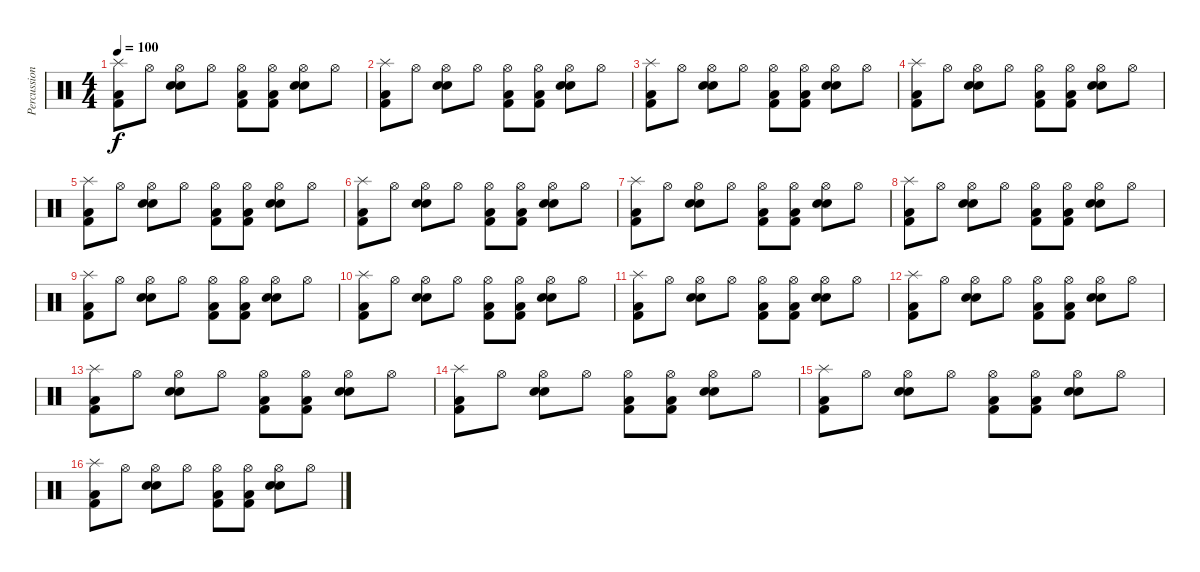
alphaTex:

\track ("Percussions" "Percussion") {instrument percussion}
\staff {score}
\articulation defaults
\ts (4 4)
\tempo 100
\clef neutral
\ks c
("Splash (hit)" "Kick (hit) 2" "Low Floor Tom (hit)").8{dy f} "Hi-Hat (open)".8 ("Hi-Hat (open)" "Snare (hit) 2" "Electric Snare (hit)").8 "Hi-Hat (open)".8 ("Hi-Hat (open)" "Kick (hit) 2" "Low Floor Tom (hit)").8 ("Hi-Hat (open)" "Kick (hit) 2" "Low Floor Tom (hit)").8 ("Hi-Hat (open)" "Snare (hit) 2" "Electric Snare (hit)").8 "Hi-Hat (open)".8 |
("Splash (hit)" "Kick (hit) 2" "Low Floor Tom (hit)").8 "Hi-Hat (open)".8 ("Hi-Hat (open)" "Snare (hit) 2" "Electric Snare (hit)").8 "Hi-Hat (open)".8 ("Hi-Hat (open)" "Kick (hit) 2" "Low Floor Tom (hit)").8 ("Hi-Hat (open)" "Kick (hit) 2" "Low Floor Tom (hit)").8 ("Hi-Hat (open)" "Snare (hit) 2" "Electric Snare (hit)").8 "Hi-Hat (open)".8 |
("Splash (hit)" "Kick (hit) 2" "Low Floor Tom (hit)").8 "Hi-Hat (open)".8 ("Hi-Hat (open)" "Snare (hit) 2" "Electric Snare (hit)").8 "Hi-Hat (open)".8 ("Hi-Hat (open)" "Kick (hit) 2" "Low Floor Tom (hit)").8 ("Hi-Hat (open)" "Kick (hit) 2" "Low Floor Tom (hit)").8 ("Hi-Hat (open)" "Snare (hit) 2" "Electric Snare (hit)").8 "Hi-Hat (open)".8 |
("Splash (hit)" "Kick (hit) 2" "Low Floor Tom (hit)").8 "Hi-Hat (open)".8 ("Hi-Hat (open)" "Snare (hit) 2" "Electric Snare (hit)").8 "Hi-Hat (open)".8 ("Hi-Hat (open)" "Kick (hit) 2" "Low Floor Tom (hit)").8 ("Hi-Hat (open)" "Kick (hit) 2" "Low Floor Tom (hit)").8 ("Hi-Hat (open)" "Snare (hit) 2" "Electric Snare (hit)").8 "Hi-Hat (open)".8 |
("Splash (hit)" "Kick (hit) 2" "Low Floor Tom (hit)").8 "Hi-Hat (open)".8 ("Hi-Hat (open)" "Snare (hit) 2" "Electric Snare (hit)").8 "Hi-Hat (open)".8 ("Hi-Hat (open)" "Kick (hit) 2" "Low Floor Tom (hit)").8 ("Hi-Hat (open)" "Kick (hit) 2" "Low Floor Tom (hit)").8 ("Hi-Hat (open)" "Snare (hit) 2" "Electric Snare (hit)").8 "Hi-Hat (open)".8 |
("Splash (hit)" "Kick (hit) 2" "Low Floor Tom (hit)").8 "Hi-Hat (open)".8 ("Hi-Hat (open)" "Snare (hit) 2" "Electric Snare (hit)").8 "Hi-Hat (open)".8 ("Hi-Hat (open)" "Kick (hit) 2" "Low Floor Tom (hit)").8 ("Hi-Hat (open)" "Kick (hit) 2" "Low Floor Tom (hit)").8 ("Hi-Hat (open)" "Snare (hit) 2" "Electric Snare (hit)").8 "Hi-Hat (open)".8 |
("Splash (hit)" "Kick (hit) 2" "Low Floor Tom (hit)").8 "Hi-Hat (open)".8 ("Hi-Hat (open)" "Snare (hit) 2" "Electric Snare (hit)").8 "Hi-Hat (open)".8 ("Hi-Hat (open)" "Kick (hit) 2" "Low Floor Tom (hit)").8 ("Hi-Hat (open)" "Kick (hit) 2" "Low Floor Tom (hit)").8 ("Hi-Hat (open)" "Snare (hit) 2" "Electric Snare (hit)").8 "Hi-Hat (open)".8 |
("Splash (hit)" "Kick (hit) 2" "Low Floor Tom (hit)").8 "Hi-Hat (open)".8 ("Hi-Hat (open)" "Snare (hit) 2" "Electric Snare (hit)").8 "Hi-Hat (open)".8 ("Hi-Hat (open)" "Kick (hit) 2" "Low Floor Tom (hit)").8 ("Hi-Hat (open)" "Kick (hit) 2" "Low Floor Tom (hit)").8 ("Hi-Hat (open)" "Snare (hit) 2" "Electric Snare (hit)").8 "Hi-Hat (open)".8 |
("Splash (hit)" "Kick (hit) 2" "Low Floor Tom (hit)").8 "Hi-Hat (open)".8 ("Hi-Hat (open)" "Snare (hit) 2" "Electric Snare (hit)").8 "Hi-Hat (open)".8 ("Hi-Hat (open)" "Kick (hit) 2" "Low Floor Tom (hit)").8 ("Hi-Hat (open)" "Kick (hit) 2" "Low Floor Tom (hit)").8 ("Hi-Hat (open)" "Snare (hit) 2" "Electric Snare (hit)").8 "Hi-Hat (open)".8 |
("Splash (hit)" "Kick (hit) 2" "Low Floor Tom (hit)").8 "Hi-Hat (open)".8 ("Hi-Hat (open)" "Snare (hit) 2" "Electric Snare (hit)").8 "Hi-Hat (open)".8 ("Hi-Hat (open)" "Kick (hit) 2" "Low Floor Tom (hit)").8 ("Hi-Hat (open)" "Kick (hit) 2" "Low Floor Tom (hit)").8 ("Hi-Hat (open)" "Snare (hit) 2" "Electric Snare (hit)").8 "Hi-Hat (open)".8 |
("Splash (hit)" "Kick (hit) 2" "Low Floor Tom (hit)").8 "Hi-Hat (open)".8 ("Hi-Hat (open)" "Snare (hit) 2" "Electric Snare (hit)").8 "Hi-Hat (open)".8 ("Hi-Hat (open)" "Kick (hit) 2" "Low Floor Tom (hit)").8 ("Hi-Hat (open)" "Kick (hit) 2" "Low Floor Tom (hit)").8 ("Hi-Hat (open)" "Snare (hit) 2" "Electric Snare (hit)").8 "Hi-Hat (open)".8 |
("Splash (hit)" "Kick (hit) 2" "Low Floor Tom (hit)").8 "Hi-Hat (open)".8 ("Hi-Hat (open)" "Snare (hit) 2" "Electric Snare (hit)").8 "Hi-Hat (open)".8 ("Hi-Hat (open)" "Kick (hit) 2" "Low Floor Tom (hit)").8 ("Hi-Hat (open)" "Kick (hit) 2" "Low Floor Tom (hit)").8 ("Hi-Hat (open)" "Snare (hit) 2" "Electric Snare (hit)").8 "Hi-Hat (open)".8 |
("Splash (hit)" "Kick (hit) 2" "Low Floor Tom (hit)").8 "Hi-Hat (open)".8 ("Hi-Hat (open)" "Snare (hit) 2" "Electric Snare (hit)").8 "Hi-Hat (open)".8 ("Hi-Hat (open)" "Kick (hit) 2" "Low Floor Tom (hit)").8 ("Hi-Hat (open)" "Kick (hit) 2" "Low Floor Tom (hit)").8 ("Hi-Hat (open)" "Snare (hit) 2" "Electric Snare (hit)").8 "Hi-Hat (open)".8 |
("Splash (hit)" "Kick (hit) 2" "Low Floor Tom (hit)").8 "Hi-Hat (open)".8 ("Hi-Hat (open)" "Snare (hit) 2" "Electric Snare (hit)").8 "Hi-Hat (open)".8 ("Hi-Hat (open)" "Kick (hit) 2" "Low Floor Tom (hit)").8 ("Hi-Hat (open)" "Kick (hit) 2" "Low Floor Tom (hit)").8 ("Hi-Hat (open)" "Snare (hit) 2" "Electric Snare (hit)").8 "Hi-Hat (open)".8 |
("Splash (hit)" "Kick (hit) 2" "Low Floor Tom (hit)").8 "Hi-Hat (open)".8 ("Hi-Hat (open)" "Snare (hit) 2" "Electric Snare (hit)").8 "Hi-Hat (open)".8 ("Hi-Hat (open)" "Kick (hit) 2" "Low Floor Tom (hit)").8 ("Hi-Hat (open)" "Kick (hit) 2" "Low Floor Tom (hit)").8 ("Hi-Hat (open)" "Snare (hit) 2" "Electric Snare (hit)").8 "Hi-Hat (open)".8 |
("Splash (hit)" "Kick (hit) 2" "Low Floor Tom (hit)").8 "Hi-Hat (open)".8 ("Hi-Hat (open)" "Snare (hit) 2" "Electric Snare (hit)").8 "Hi-Hat (open)".8 ("Hi-Hat (open)" "Kick (hit) 2" "Low Floor Tom (hit)").8 ("Hi-Hat (open)" "Kick (hit) 2" "Low Floor Tom (hit)").8 ("Hi-Hat (open)" "Snare (hit) 2" "Electric Snare (hit)").8 "Hi-Hat (open)".8
